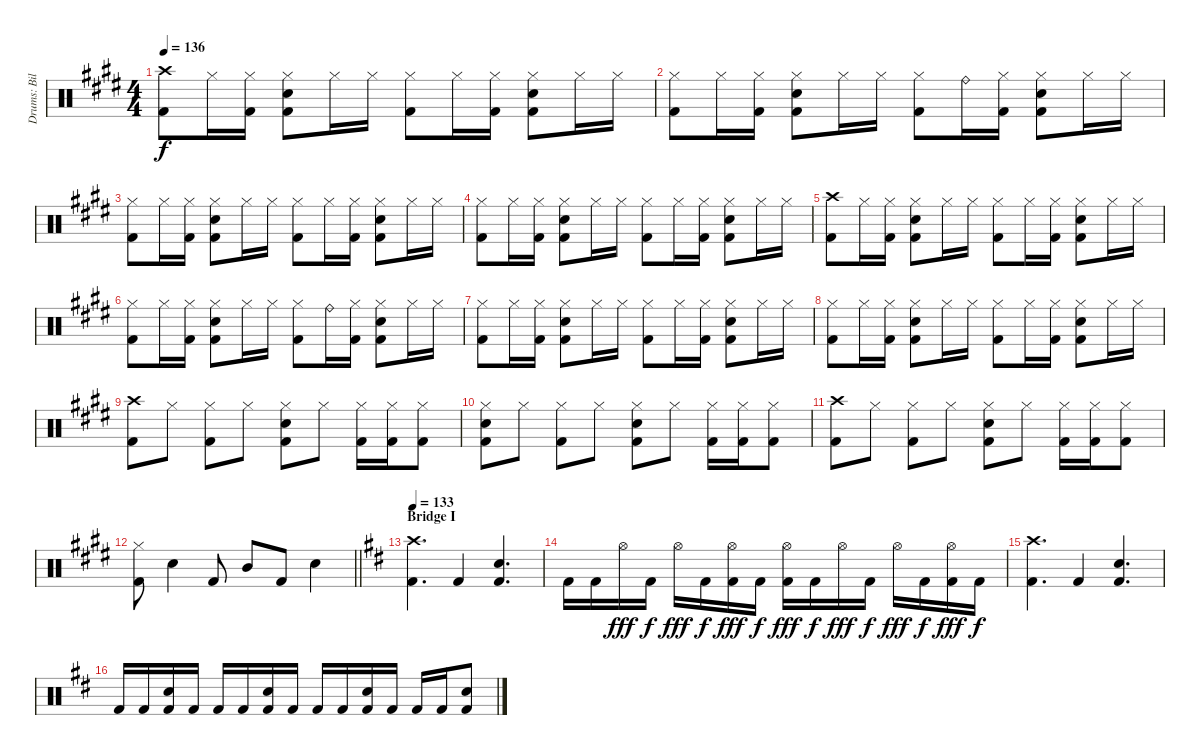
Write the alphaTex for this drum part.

\track ("Drums: Bill" "Drums: Bil") {instrument percussion}
\staff {score}
\articulation defaults
\ts (4 4)
\tempo 136
\clef neutral
\ks e
("Crash high (hit)" "Kick (hit) 2").8{dy f} "Hi-Hat (closed)".16 ("Hi-Hat (closed)" "Kick (hit) 2").16 ("Hi-Hat (closed)" "Snare (hit) 2" "Kick (hit) 2").8 "Hi-Hat (closed)".16 "Hi-Hat (closed)".16 ("Hi-Hat (closed)" "Kick (hit) 2").8 "Hi-Hat (closed)".16 ("Hi-Hat (closed)" "Kick (hit) 2").16 ("Hi-Hat (closed)" "Snare (hit) 2" "Kick (hit) 2").8 "Hi-Hat (closed)".16 "Hi-Hat (closed)".16 |
("Hi-Hat (closed)" "Kick (hit) 2").8 "Hi-Hat (closed)".16 ("Hi-Hat (closed)" "Kick (hit) 2").16 ("Hi-Hat (closed)" "Snare (hit) 2" "Kick (hit) 2").8 "Hi-Hat (closed)".16 "Hi-Hat (closed)".16 ("Hi-Hat (closed)" "Kick (hit) 2").8 "Ride (bell)".16 ("Hi-Hat (closed)" "Kick (hit) 2").16 ("Hi-Hat (closed)" "Snare (hit) 2" "Kick (hit) 2").8 "Hi-Hat (closed)".16 "Hi-Hat (closed)".16 |
("Hi-Hat (closed)" "Kick (hit) 2").8 "Hi-Hat (closed)".16 ("Hi-Hat (closed)" "Kick (hit) 2").16 ("Hi-Hat (closed)" "Snare (hit) 2" "Kick (hit) 2").8 "Hi-Hat (closed)".16 "Hi-Hat (closed)".16 ("Hi-Hat (closed)" "Kick (hit) 2").8 "Hi-Hat (closed)".16 ("Hi-Hat (closed)" "Kick (hit) 2").16 ("Hi-Hat (closed)" "Snare (hit) 2" "Kick (hit) 2").8 "Hi-Hat (closed)".16 "Hi-Hat (closed)".16 |
("Hi-Hat (closed)" "Kick (hit) 2").8 "Hi-Hat (closed)".16 ("Hi-Hat (closed)" "Kick (hit) 2").16 ("Hi-Hat (closed)" "Snare (hit) 2" "Kick (hit) 2").8 "Hi-Hat (closed)".16 "Hi-Hat (closed)".16 ("Hi-Hat (closed)" "Kick (hit) 2").8 "Hi-Hat (closed)".16 ("Hi-Hat (closed)" "Kick (hit) 2").16 ("Hi-Hat (closed)" "Snare (hit) 2" "Kick (hit) 2").8 "Hi-Hat (closed)".16 "Hi-Hat (closed)".16 |
("Crash high (hit)" "Kick (hit) 2").8 "Hi-Hat (closed)".16 ("Hi-Hat (closed)" "Kick (hit) 2").16 ("Hi-Hat (closed)" "Snare (hit) 2" "Kick (hit) 2").8 "Hi-Hat (closed)".16 "Hi-Hat (closed)".16 ("Hi-Hat (closed)" "Kick (hit) 2").8 "Hi-Hat (closed)".16 ("Hi-Hat (closed)" "Kick (hit) 2").16 ("Hi-Hat (closed)" "Snare (hit) 2" "Kick (hit) 2").8 "Hi-Hat (closed)".16 "Hi-Hat (closed)".16 |
("Hi-Hat (closed)" "Kick (hit) 2").8 "Hi-Hat (closed)".16 ("Hi-Hat (closed)" "Kick (hit) 2").16 ("Hi-Hat (closed)" "Snare (hit) 2" "Kick (hit) 2").8 "Hi-Hat (closed)".16 "Hi-Hat (closed)".16 ("Hi-Hat (closed)" "Kick (hit) 2").8 "Ride (bell)".16 ("Hi-Hat (closed)" "Kick (hit) 2").16 ("Hi-Hat (closed)" "Snare (hit) 2" "Kick (hit) 2").8 "Hi-Hat (closed)".16 "Hi-Hat (closed)".16 |
("Hi-Hat (closed)" "Kick (hit) 2").8 "Hi-Hat (closed)".16 ("Hi-Hat (closed)" "Kick (hit) 2").16 ("Hi-Hat (closed)" "Snare (hit) 2" "Kick (hit) 2").8 "Hi-Hat (closed)".16 "Hi-Hat (closed)".16 ("Hi-Hat (closed)" "Kick (hit) 2").8 "Hi-Hat (closed)".16 ("Hi-Hat (closed)" "Kick (hit) 2").16 ("Hi-Hat (closed)" "Snare (hit) 2" "Kick (hit) 2").8 "Hi-Hat (closed)".16 "Hi-Hat (closed)".16 |
("Hi-Hat (closed)" "Kick (hit) 2").8 "Hi-Hat (closed)".16 ("Hi-Hat (closed)" "Kick (hit) 2").16 ("Hi-Hat (closed)" "Snare (hit) 2" "Kick (hit) 2").8 "Hi-Hat (closed)".16 "Hi-Hat (closed)".16 ("Hi-Hat (closed)" "Kick (hit) 2").8 "Hi-Hat (closed)".16 ("Hi-Hat (closed)" "Kick (hit) 2").16 ("Hi-Hat (closed)" "Snare (hit) 2" "Kick (hit) 2").8 "Hi-Hat (closed)".16 "Hi-Hat (closed)".16 |
("Crash high (hit)" "Kick (hit) 2").8 "Hi-Hat (closed)".8 ("Hi-Hat (closed)" "Kick (hit) 2").8 "Hi-Hat (closed)".8 ("Hi-Hat (closed)" "Snare (hit) 2" "Kick (hit) 2").8 "Hi-Hat (closed)".8 ("Hi-Hat (closed)" "Kick (hit) 2").16 ("Hi-Hat (closed)" "Kick (hit) 2").16 ("Hi-Hat (closed)" "Kick (hit) 2").8 |
("Hi-Hat (closed)" "Snare (hit) 2" "Kick (hit) 2").8 "Hi-Hat (closed)".8 ("Hi-Hat (closed)" "Kick (hit) 2").8 "Hi-Hat (closed)".8 ("Hi-Hat (closed)" "Snare (hit) 2" "Kick (hit) 2").8 "Hi-Hat (closed)".8 ("Hi-Hat (closed)" "Kick (hit) 2").16 ("Hi-Hat (closed)" "Kick (hit) 2").16 ("Hi-Hat (closed)" "Kick (hit) 2").8 |
("Crash high (hit)" "Kick (hit) 2").8 "Hi-Hat (closed)".8 ("Hi-Hat (closed)" "Kick (hit) 2").8 "Hi-Hat (closed)".8 ("Hi-Hat (closed)" "Snare (hit) 2" "Kick (hit) 2").8 "Hi-Hat (closed)".8 ("Hi-Hat (closed)" "Kick (hit) 2").16 ("Hi-Hat (closed)" "Kick (hit) 2").16 ("Hi-Hat (closed)" "Kick (hit) 2").8 |
\barLineRight lightlight
("Hi-Hat (closed)" "Kick (hit) 2").8 "Electric Snare (hit)".4 "Kick (hit) 2".8 "Mid Tom (hit)".8 "Kick (hit) 2".8 "Electric Snare (hit)".4 |
\section ("" "Bridge I")
\tempo 133
\ks d
("Crash high (hit)" "Kick (hit) 2").4{d} "Kick (hit) 2".4 ("Snare (hit) 2" "Kick (hit) 2").4{d} |
"Kick (hit) 2".16 "Kick (hit) 2".16 "Hi-Hat (open)".16{dy fff} "Kick (hit) 2".16{dy f} "Hi-Hat (open)".16{dy fff} "Kick (hit) 2".16{dy f} ("Hi-Hat (open)" "Kick (hit) 2").16{dy fff} "Kick (hit) 2".16{dy f} ("Hi-Hat (open)" "Kick (hit) 2").16{dy fff} "Kick (hit) 2".16{dy f} "Hi-Hat (open)".16{dy fff} "Kick (hit) 2".16{dy f} "Hi-Hat (open)".16{dy fff} "Kick (hit) 2".16{dy f} ("Hi-Hat (open)" "Kick (hit) 2").16{dy fff} "Kick (hit) 2".16{dy f} |
("Crash high (hit)" "Kick (hit) 2").4{d} "Kick (hit) 2".4 ("Snare (hit) 2" "Kick (hit) 2").4{d} |
"Kick (hit) 2".16 "Kick (hit) 2".16 ("Snare (hit) 2" "Kick (hit) 2").16 "Kick (hit) 2".16 "Kick (hit) 2".16 "Kick (hit) 2".16 ("Snare (hit) 2" "Kick (hit) 2").16 "Kick (hit) 2".16 "Kick (hit) 2".16 "Kick (hit) 2".16 ("Snare (hit) 2" "Kick (hit) 2").16 "Kick (hit) 2".16 "Kick (hit) 2".16 "Kick (hit) 2".16 ("Snare (hit) 2" "Kick (hit) 2").8
